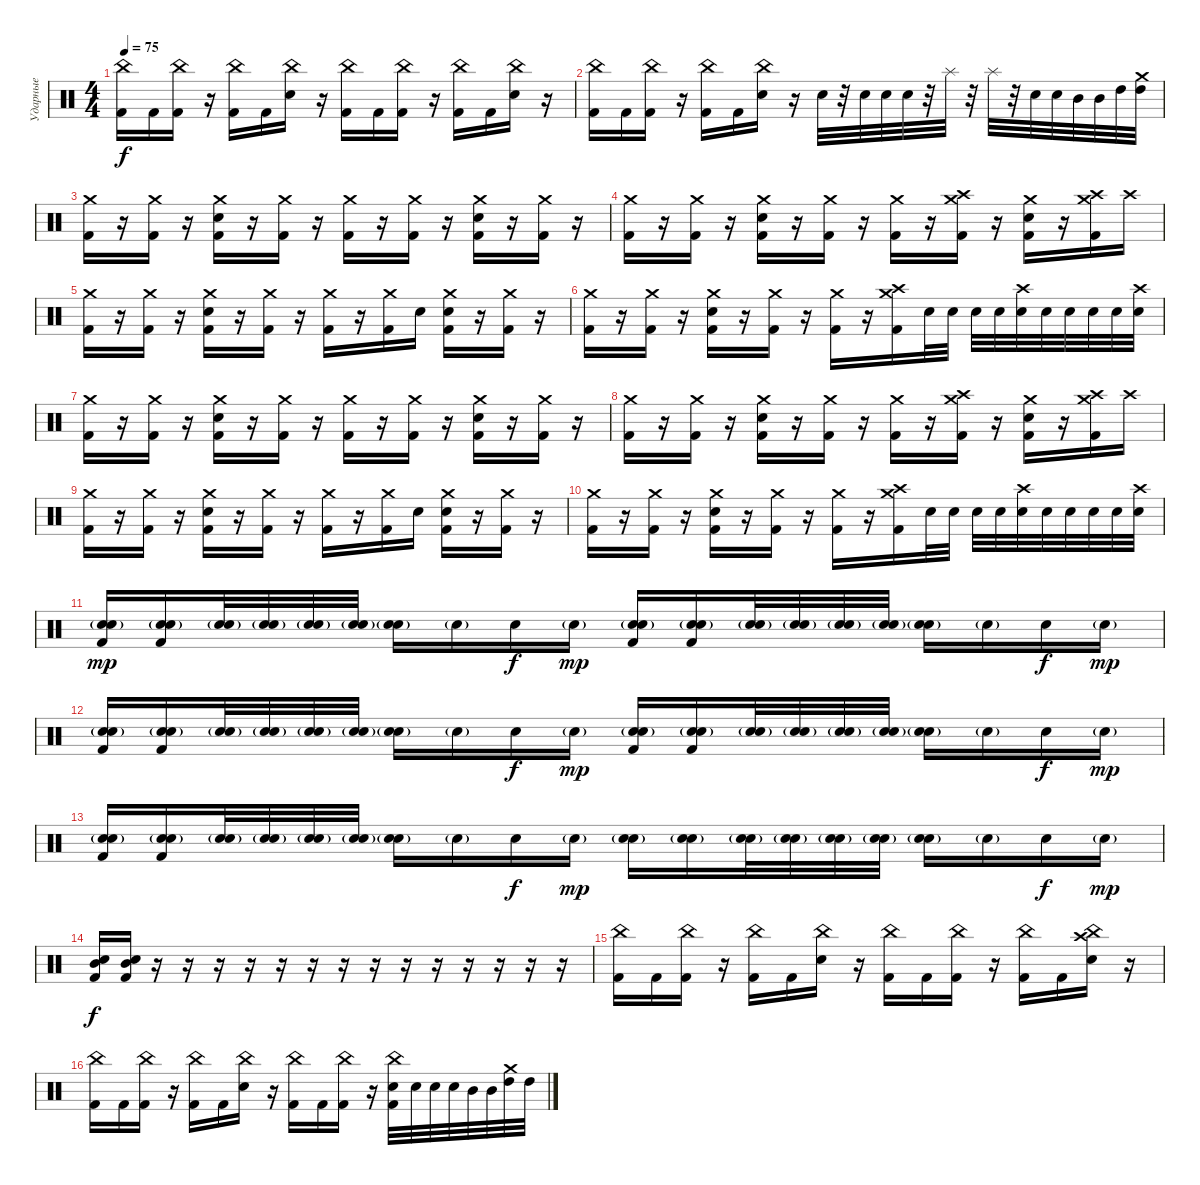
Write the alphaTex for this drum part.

\track ("Ударные" "Ударные") {instrument percussion}
\staff {score}
\articulation defaults
\ts (4 4)
\tempo 75
\clef neutral
\ks c
("Kick (hit) 2" "China (hit)").16{dy f} "Kick (hit) 2".16 ("Kick (hit) 2" "China (hit)").16 r.16 ("Kick (hit) 2" "China (hit)").16 "Kick (hit) 2".16 ("Electric Snare (hit)" "China (hit)").16 r.16 ("Kick (hit) 2" "China (hit)").16 "Kick (hit) 2".16 ("Kick (hit) 2" "China (hit)").16 r.16 ("Kick (hit) 2" "China (hit)").16 "Kick (hit) 2".16 ("Electric Snare (hit)" "China (hit)").16 r.16 |
("Kick (hit) 2" "China (hit)").16 "Kick (hit) 2".16 ("Kick (hit) 2" "China (hit)").16 r.16 ("Kick (hit) 2" "China (hit)").16 "Kick (hit) 2".16 ("Electric Snare (hit)" "China (hit)").16 r.16 "Electric Snare (hit)".32 r.32 "Electric Snare (hit)".32 "Electric Snare (hit)".32 "Electric Snare (hit)".32 r.32 "Splash (hit)".32 r.32 "Splash (hit)".32 r.32 "Electric Snare (hit)".32 "Electric Snare (hit)".32 "Mid Tom (hit)".32 "Mid Tom (hit)".32 "High Tom (hit)".32 ("High Tom (hit)" "Crash medium (hit)").32 |
("Kick (hit) 2" "Crash medium (hit)").16 r.16 ("Kick (hit) 2" "Crash medium (hit)").16 r.16 ("Kick (hit) 2" "Electric Snare (hit)" "Crash medium (hit)").16 r.16 ("Kick (hit) 2" "Crash medium (hit)").16 r.16 ("Kick (hit) 2" "Crash medium (hit)").16 r.16 ("Kick (hit) 2" "Crash medium (hit)").16 r.16 ("Kick (hit) 2" "Electric Snare (hit)" "Crash medium (hit)").16 r.16 ("Kick (hit) 2" "Crash medium (hit)").16 r.16 |
("Kick (hit) 2" "Crash medium (hit)").16 r.16 ("Kick (hit) 2" "Crash medium (hit)").16 r.16 ("Kick (hit) 2" "Electric Snare (hit)" "Crash medium (hit)").16 r.16 ("Kick (hit) 2" "Crash medium (hit)").16 r.16 ("Kick (hit) 2" "Crash medium (hit)").16 r.16 ("Kick (hit) 2" "Crash medium (hit)" "Crash high (hit)").16 r.16 ("Kick (hit) 2" "Electric Snare (hit)" "Crash medium (hit)").16 r.16 ("Kick (hit) 2" "Crash medium (hit)" "Crash high (hit)").16 "Crash high (hit)".16 |
("Kick (hit) 2" "Crash medium (hit)").16 r.16 ("Kick (hit) 2" "Crash medium (hit)").16 r.16 ("Kick (hit) 2" "Electric Snare (hit)" "Crash medium (hit)").16 r.16 ("Kick (hit) 2" "Crash medium (hit)").16 r.16 ("Kick (hit) 2" "Crash medium (hit)").16 r.16 ("Kick (hit) 2" "Crash medium (hit)").16 "Electric Snare (hit)".16 ("Kick (hit) 2" "Electric Snare (hit)" "Crash medium (hit)").16 r.16 ("Kick (hit) 2" "Crash medium (hit)").16 r.16 |
("Kick (hit) 2" "Crash medium (hit)").16 r.16 ("Kick (hit) 2" "Crash medium (hit)").16 r.16 ("Kick (hit) 2" "Electric Snare (hit)" "Crash medium (hit)").16 r.16 ("Kick (hit) 2" "Crash medium (hit)").16 r.16 ("Kick (hit) 2" "Crash medium (hit)").16 r.16 ("Kick (hit) 2" "Crash medium (hit)" "Crash high (hit)").16 "Electric Snare (hit)".32 "Electric Snare (hit)".32 "Electric Snare (hit)".32 "Electric Snare (hit)".32 ("Electric Snare (hit)" "Crash high (hit)").32 "Electric Snare (hit)".32 "Electric Snare (hit)".32 "Electric Snare (hit)".32 "Electric Snare (hit)".32 ("Electric Snare (hit)" "Crash high (hit)").32 |
("Kick (hit) 2" "Crash medium (hit)").16 r.16 ("Kick (hit) 2" "Crash medium (hit)").16 r.16 ("Kick (hit) 2" "Electric Snare (hit)" "Crash medium (hit)").16 r.16 ("Kick (hit) 2" "Crash medium (hit)").16 r.16 ("Kick (hit) 2" "Crash medium (hit)").16 r.16 ("Kick (hit) 2" "Crash medium (hit)").16 r.16 ("Kick (hit) 2" "Electric Snare (hit)" "Crash medium (hit)").16 r.16 ("Kick (hit) 2" "Crash medium (hit)").16 r.16 |
("Kick (hit) 2" "Crash medium (hit)").16 r.16 ("Kick (hit) 2" "Crash medium (hit)").16 r.16 ("Kick (hit) 2" "Electric Snare (hit)" "Crash medium (hit)").16 r.16 ("Kick (hit) 2" "Crash medium (hit)").16 r.16 ("Kick (hit) 2" "Crash medium (hit)").16 r.16 ("Kick (hit) 2" "Crash medium (hit)" "Crash high (hit)").16 r.16 ("Kick (hit) 2" "Electric Snare (hit)" "Crash medium (hit)").16 r.16 ("Kick (hit) 2" "Crash medium (hit)" "Crash high (hit)").16 "Crash high (hit)".16 |
("Kick (hit) 2" "Crash medium (hit)").16 r.16 ("Kick (hit) 2" "Crash medium (hit)").16 r.16 ("Kick (hit) 2" "Electric Snare (hit)" "Crash medium (hit)").16 r.16 ("Kick (hit) 2" "Crash medium (hit)").16 r.16 ("Kick (hit) 2" "Crash medium (hit)").16 r.16 ("Kick (hit) 2" "Crash medium (hit)").16 "Electric Snare (hit)".16 ("Kick (hit) 2" "Electric Snare (hit)" "Crash medium (hit)").16 r.16 ("Kick (hit) 2" "Crash medium (hit)").16 r.16 |
("Kick (hit) 2" "Crash medium (hit)").16 r.16 ("Kick (hit) 2" "Crash medium (hit)").16 r.16 ("Kick (hit) 2" "Electric Snare (hit)" "Crash medium (hit)").16 r.16 ("Kick (hit) 2" "Crash medium (hit)").16 r.16 ("Kick (hit) 2" "Crash medium (hit)").16 r.16 ("Kick (hit) 2" "Crash medium (hit)" "Crash high (hit)").16 "Electric Snare (hit)".32 "Electric Snare (hit)".32 "Electric Snare (hit)".32 "Electric Snare (hit)".32 ("Electric Snare (hit)" "Crash high (hit)").32 "Electric Snare (hit)".32 "Electric Snare (hit)".32 "Electric Snare (hit)".32 "Electric Snare (hit)".32 ("Electric Snare (hit)" "Crash high (hit)").32 |
("Kick (hit) 2" "Electric Snare (hit)"{g} "Electric Snare (hit)"{g}).16{dy mp} ("Kick (hit) 2" "Electric Snare (hit)"{g} "Electric Snare (hit)"{g}).16 ("Electric Snare (hit)"{g} "Electric Snare (hit)"{g}).32 ("Electric Snare (hit)"{g} "Electric Snare (hit)"{g}).32 ("Electric Snare (hit)"{g} "Electric Snare (hit)"{g}).32 ("Electric Snare (hit)"{g} "Electric Snare (hit)"{g}).32 ("Electric Snare (hit)"{g} "Electric Snare (hit)").16 "Electric Snare (hit)"{g}.16 "Electric Snare (hit)".16{dy f} "Electric Snare (hit)"{g}.16{dy mp} ("Kick (hit) 2" "Electric Snare (hit)"{g} "Electric Snare (hit)"{g}).16 ("Kick (hit) 2" "Electric Snare (hit)"{g} "Electric Snare (hit)"{g}).16 ("Electric Snare (hit)"{g} "Electric Snare (hit)"{g}).32 ("Electric Snare (hit)"{g} "Electric Snare (hit)"{g}).32 ("Electric Snare (hit)"{g} "Electric Snare (hit)"{g}).32 ("Electric Snare (hit)"{g} "Electric Snare (hit)"{g}).32 ("Electric Snare (hit)"{g} "Electric Snare (hit)").16 "Electric Snare (hit)"{g}.16 "Electric Snare (hit)".16{dy f} "Electric Snare (hit)"{g}.16{dy mp} |
("Kick (hit) 2" "Electric Snare (hit)"{g} "Electric Snare (hit)"{g}).16 ("Kick (hit) 2" "Electric Snare (hit)"{g} "Electric Snare (hit)"{g}).16 ("Electric Snare (hit)"{g} "Electric Snare (hit)"{g}).32 ("Electric Snare (hit)"{g} "Electric Snare (hit)"{g}).32 ("Electric Snare (hit)"{g} "Electric Snare (hit)"{g}).32 ("Electric Snare (hit)"{g} "Electric Snare (hit)"{g}).32 ("Electric Snare (hit)"{g} "Electric Snare (hit)").16 "Electric Snare (hit)"{g}.16 "Electric Snare (hit)".16{dy f} "Electric Snare (hit)"{g}.16{dy mp} ("Kick (hit) 2" "Electric Snare (hit)"{g} "Electric Snare (hit)"{g}).16 ("Kick (hit) 2" "Electric Snare (hit)"{g} "Electric Snare (hit)"{g}).16 ("Electric Snare (hit)"{g} "Electric Snare (hit)"{g}).32 ("Electric Snare (hit)"{g} "Electric Snare (hit)"{g}).32 ("Electric Snare (hit)"{g} "Electric Snare (hit)"{g}).32 ("Electric Snare (hit)"{g} "Electric Snare (hit)"{g}).32 ("Electric Snare (hit)"{g} "Electric Snare (hit)").16 "Electric Snare (hit)"{g}.16 "Electric Snare (hit)".16{dy f} "Electric Snare (hit)"{g}.16{dy mp} |
("Kick (hit) 2" "Electric Snare (hit)"{g} "Electric Snare (hit)"{g}).16 ("Kick (hit) 2" "Electric Snare (hit)"{g} "Electric Snare (hit)"{g}).16 ("Electric Snare (hit)"{g} "Electric Snare (hit)"{g}).32 ("Electric Snare (hit)"{g} "Electric Snare (hit)"{g}).32 ("Electric Snare (hit)"{g} "Electric Snare (hit)"{g}).32 ("Electric Snare (hit)"{g} "Electric Snare (hit)"{g}).32 ("Electric Snare (hit)"{g} "Electric Snare (hit)").16 "Electric Snare (hit)"{g}.16 "Electric Snare (hit)".16{dy f} "Electric Snare (hit)"{g}.16{dy mp} ("Electric Snare (hit)"{g} "Electric Snare (hit)"{g}).16 ("Electric Snare (hit)"{g} "Electric Snare (hit)"{g}).16 ("Electric Snare (hit)"{g} "Electric Snare (hit)"{g}).32 ("Electric Snare (hit)"{g} "Electric Snare (hit)"{g}).32 ("Electric Snare (hit)"{g} "Electric Snare (hit)"{g}).32 ("Electric Snare (hit)"{g} "Electric Snare (hit)"{g}).32 ("Electric Snare (hit)"{g} "Electric Snare (hit)").16 "Electric Snare (hit)"{g}.16 "Electric Snare (hit)".16{dy f} "Electric Snare (hit)"{g}.16{dy mp} |
("Kick (hit) 2" "Mid Tom (hit)" "Electric Snare (hit)").16{dy f} ("Kick (hit) 2" "Mid Tom (hit)" "Electric Snare (hit)").16 r.16 r.16 r.16 r.16 r.16 r.16 r.16 r.16 r.16 r.16 r.16 r.16 r.16 r.16 |
("Kick (hit) 2" "China (hit)").16 "Kick (hit) 2".16 ("Kick (hit) 2" "China (hit)").16 r.16 ("Kick (hit) 2" "China (hit)").16 "Kick (hit) 2".16 ("Electric Snare (hit)" "China (hit)").16 r.16 ("Kick (hit) 2" "China (hit)").16 "Kick (hit) 2".16 ("Kick (hit) 2" "China (hit)").16 r.16 ("Kick (hit) 2" "China (hit)").16 "Kick (hit) 2".16 ("Electric Snare (hit)" "Crash high (hit)" "China (hit)").16 r.16 |
("Kick (hit) 2" "China (hit)").16 "Kick (hit) 2".16 ("Kick (hit) 2" "China (hit)").16 r.16 ("Kick (hit) 2" "China (hit)").16 "Kick (hit) 2".16 ("Electric Snare (hit)" "China (hit)").16 r.16 ("Kick (hit) 2" "China (hit)").16 "Kick (hit) 2".16 ("Kick (hit) 2" "China (hit)").16 r.16 ("Kick (hit) 2" "Electric Snare (hit)" "China (hit)").32 "Electric Snare (hit)".32 "Electric Snare (hit)".32 "Electric Snare (hit)".32 "Mid Tom (hit)".32 "Mid Tom (hit)".32 ("High Tom (hit)" "Crash medium (hit)").32 "High Tom (hit)".32
